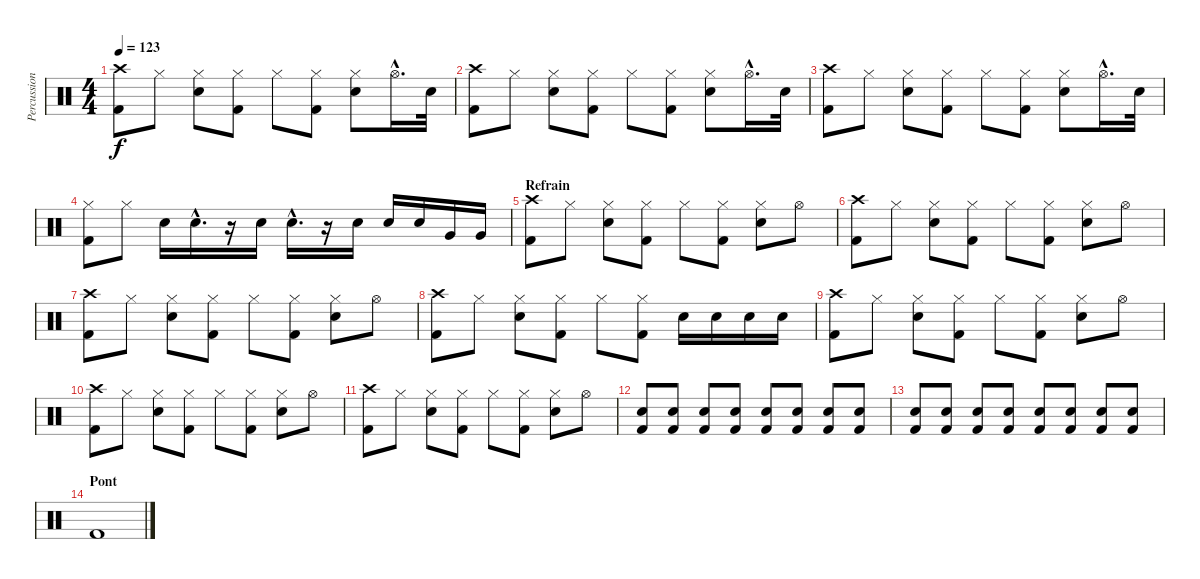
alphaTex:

\track ("Percussions" "Percussion") {instrument percussion}
\staff {score}
\articulation defaults
\ts (4 4)
\tempo 123
\clef neutral
\ks c
("Crash high (hit)" "Kick (hit) 2").8{dy f} "Hi-Hat (closed)".8 ("Hi-Hat (closed)" "Snare (hit) 2").8 ("Hi-Hat (closed)" "Kick (hit) 2").8 "Hi-Hat (closed)".8 ("Hi-Hat (closed)" "Kick (hit) 2").8 ("Hi-Hat (closed)" "Snare (hit) 2").8 "Hi-Hat (open)"{hac}.16{d} "Snare (hit) 2".32 |
("Crash high (hit)" "Kick (hit) 2").8 "Hi-Hat (closed)".8 ("Hi-Hat (closed)" "Snare (hit) 2").8 ("Hi-Hat (closed)" "Kick (hit) 2").8 "Hi-Hat (closed)".8 ("Hi-Hat (closed)" "Kick (hit) 2").8 ("Hi-Hat (closed)" "Snare (hit) 2").8 "Hi-Hat (open)"{hac}.16{d} "Snare (hit) 2".32 |
("Crash high (hit)" "Kick (hit) 2").8 "Hi-Hat (closed)".8 ("Hi-Hat (closed)" "Snare (hit) 2").8 ("Hi-Hat (closed)" "Kick (hit) 2").8 "Hi-Hat (closed)".8 ("Hi-Hat (closed)" "Kick (hit) 2").8 ("Hi-Hat (closed)" "Snare (hit) 2").8 "Hi-Hat (open)"{hac}.16{d} "Snare (hit) 2".32 |
("Hi-Hat (closed)" "Kick (hit) 2").8 "Hi-Hat (closed)".8 "Snare (hit) 2".16 "Snare (hit) 2"{hac}.16{d} r.16 "Snare (hit) 2".16 "Snare (hit) 2"{hac}.16{d} r.16 "Snare (hit) 2".16 "Snare (hit) 2".16 "Snare (hit) 2".16 "Very Low Tom (hit)".16 "Very Low Tom (hit)".16 |
\section ("" "Refrain")
("Crash high (hit)" "Kick (hit) 2").8 "Hi-Hat (closed)".8 ("Hi-Hat (closed)" "Snare (hit) 2").8 ("Hi-Hat (closed)" "Kick (hit) 2").8 "Hi-Hat (closed)".8 ("Hi-Hat (closed)" "Kick (hit) 2").8 ("Hi-Hat (closed)" "Snare (hit) 2").8 "Hi-Hat (open)".8 |
("Crash high (hit)" "Kick (hit) 2").8 "Hi-Hat (closed)".8 ("Hi-Hat (closed)" "Snare (hit) 2").8 ("Hi-Hat (closed)" "Kick (hit) 2").8 "Hi-Hat (closed)".8 ("Hi-Hat (closed)" "Kick (hit) 2").8 ("Hi-Hat (closed)" "Snare (hit) 2").8 "Hi-Hat (open)".8 |
("Crash high (hit)" "Kick (hit) 2").8 "Hi-Hat (closed)".8 ("Hi-Hat (closed)" "Snare (hit) 2").8 ("Hi-Hat (closed)" "Kick (hit) 2").8 "Hi-Hat (closed)".8 ("Hi-Hat (closed)" "Kick (hit) 2").8 ("Hi-Hat (closed)" "Snare (hit) 2").8 "Hi-Hat (open)".8 |
("Crash high (hit)" "Kick (hit) 2").8 "Hi-Hat (closed)".8 ("Hi-Hat (closed)" "Snare (hit) 2").8 ("Hi-Hat (closed)" "Kick (hit) 2").8 "Hi-Hat (closed)".8 ("Hi-Hat (closed)" "Kick (hit) 2").8 "Snare (hit) 2".16 "Snare (hit) 2".16 "Snare (hit) 2".16 "Snare (hit) 2".16 |
("Crash high (hit)" "Kick (hit) 2").8 "Hi-Hat (closed)".8 ("Hi-Hat (closed)" "Snare (hit) 2").8 ("Hi-Hat (closed)" "Kick (hit) 2").8 "Hi-Hat (closed)".8 ("Hi-Hat (closed)" "Kick (hit) 2").8 ("Hi-Hat (closed)" "Snare (hit) 2").8 "Hi-Hat (open)".8 |
("Crash high (hit)" "Kick (hit) 2").8 "Hi-Hat (closed)".8 ("Hi-Hat (closed)" "Snare (hit) 2").8 ("Hi-Hat (closed)" "Kick (hit) 2").8 "Hi-Hat (closed)".8 ("Hi-Hat (closed)" "Kick (hit) 2").8 ("Hi-Hat (closed)" "Snare (hit) 2").8 "Hi-Hat (open)".8 |
("Crash high (hit)" "Kick (hit) 2").8 "Hi-Hat (closed)".8 ("Hi-Hat (closed)" "Snare (hit) 2").8 ("Hi-Hat (closed)" "Kick (hit) 2").8 "Hi-Hat (closed)".8 ("Hi-Hat (closed)" "Kick (hit) 2").8 ("Hi-Hat (closed)" "Snare (hit) 2").8 "Hi-Hat (open)".8 |
("Snare (hit) 2" "Kick (hit) 2").8 ("Snare (hit) 2" "Kick (hit) 2").8 ("Snare (hit) 2" "Kick (hit) 2").8 ("Snare (hit) 2" "Kick (hit) 2").8 ("Snare (hit) 2" "Kick (hit) 2").8 ("Snare (hit) 2" "Kick (hit) 2").8 ("Snare (hit) 2" "Kick (hit) 2").8 ("Snare (hit) 2" "Kick (hit) 2").8 |
("Snare (hit) 2" "Kick (hit) 2").8 ("Snare (hit) 2" "Kick (hit) 2").8 ("Snare (hit) 2" "Kick (hit) 2").8 ("Snare (hit) 2" "Kick (hit) 2").8 ("Snare (hit) 2" "Kick (hit) 2").8 ("Snare (hit) 2" "Kick (hit) 2").8 ("Snare (hit) 2" "Kick (hit) 2").8 ("Snare (hit) 2" "Kick (hit) 2").8 |
\section ("" "Pont")
"Kick (hit) 2".1
